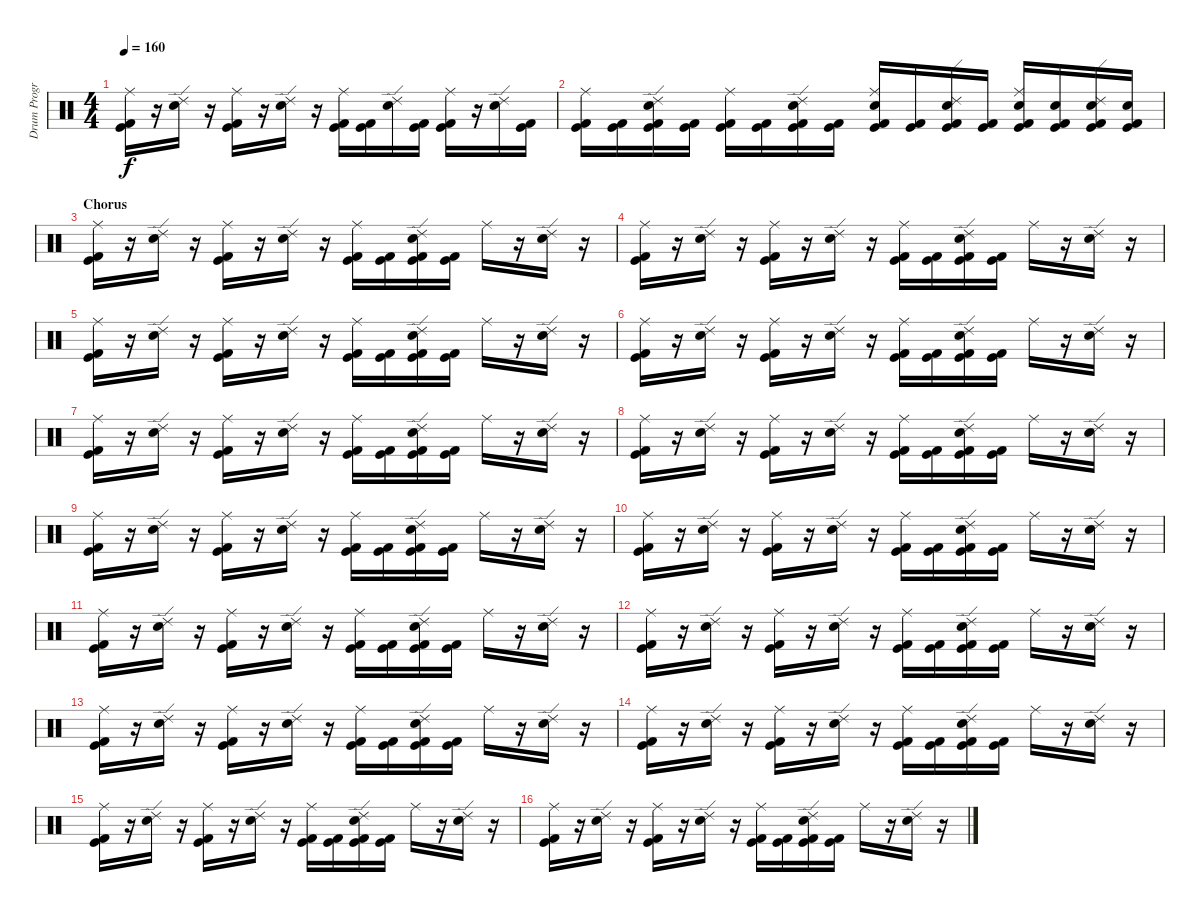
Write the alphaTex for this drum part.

\track ("Drum Program - BG" "Drum Progr") {instrument percussion}
\staff {score}
\articulation defaults
\ts (4 4)
\tempo 160
\clef neutral
\ks c
("Kick (hit) 2" "Kick (hit)" "Ride (middle)").16{dy f} r.16 ("Electric Snare (hit)" "Ride (edge) 2").16 r.16 ("Kick (hit)" "Kick (hit) 2" "Ride (middle)").16 r.16 ("Electric Snare (hit)" "Ride (edge) 2").16 r.16 ("Kick (hit)" "Kick (hit) 2" "Ride (middle)").16 ("Kick (hit)" "Kick (hit) 2").16 ("Electric Snare (hit)" "Ride (edge) 2").16 ("Kick (hit)" "Kick (hit) 2").16 ("Kick (hit)" "Kick (hit) 2" "Ride (middle)").16 r.16 ("Electric Snare (hit)" "Ride (edge) 2").16 ("Kick (hit)" "Kick (hit) 2").16 |
("Kick (hit)" "Kick (hit) 2" "Ride (middle)").16 ("Kick (hit)" "Kick (hit) 2").16 ("Kick (hit)" "Kick (hit) 2" "Electric Snare (hit)" "Ride (edge) 2").16 ("Kick (hit)" "Kick (hit) 2").16 ("Kick (hit)" "Kick (hit) 2" "Ride (middle)").16 ("Kick (hit)" "Kick (hit) 2").16 ("Kick (hit)" "Kick (hit) 2" "Electric Snare (hit)" "Ride (edge) 2").16 ("Kick (hit)" "Kick (hit) 2").16 ("Kick (hit)" "Kick (hit) 2" "Electric Snare (hit)" "Ride (middle)").16 ("Kick (hit)" "Kick (hit) 2").16 ("Kick (hit)" "Kick (hit) 2" "Electric Snare (hit)" "Ride (edge) 2").16 ("Kick (hit)" "Kick (hit) 2").16 ("Kick (hit)" "Kick (hit) 2" "Electric Snare (hit)" "Ride (middle)").16 ("Kick (hit)" "Kick (hit) 2" "Electric Snare (hit)").16 ("Kick (hit)" "Kick (hit) 2" "Electric Snare (hit)" "Ride (edge) 2").16 ("Kick (hit)" "Kick (hit) 2" "Electric Snare (hit)").16 |
\section ("" "Chorus")
("Kick (hit) 2" "Kick (hit)" "Ride (middle)").16 r.16 ("Electric Snare (hit)" "Ride (edge) 2").16 r.16 ("Kick (hit)" "Kick (hit) 2" "Ride (middle)").16 r.16 ("Electric Snare (hit)" "Ride (edge) 2").16 r.16 ("Kick (hit)" "Kick (hit) 2" "Ride (middle)").16 ("Kick (hit)" "Kick (hit) 2").16 ("Kick (hit)" "Kick (hit) 2" "Electric Snare (hit)" "Ride (edge) 2").16 ("Kick (hit)" "Kick (hit) 2").16 "Ride (middle)".16 r.16 ("Electric Snare (hit)" "Ride (edge) 2").16 r.16 |
("Kick (hit) 2" "Kick (hit)" "Ride (middle)").16 r.16 ("Electric Snare (hit)" "Ride (edge) 2").16 r.16 ("Kick (hit)" "Kick (hit) 2" "Ride (middle)").16 r.16 ("Electric Snare (hit)" "Ride (edge) 2").16 r.16 ("Kick (hit)" "Kick (hit) 2" "Ride (middle)").16 ("Kick (hit)" "Kick (hit) 2").16 ("Kick (hit)" "Kick (hit) 2" "Electric Snare (hit)" "Ride (edge) 2").16 ("Kick (hit)" "Kick (hit) 2").16 "Ride (middle)".16 r.16 ("Electric Snare (hit)" "Ride (edge) 2").16 r.16 |
("Kick (hit) 2" "Kick (hit)" "Ride (middle)").16 r.16 ("Electric Snare (hit)" "Ride (edge) 2").16 r.16 ("Kick (hit)" "Kick (hit) 2" "Ride (middle)").16 r.16 ("Electric Snare (hit)" "Ride (edge) 2").16 r.16 ("Kick (hit)" "Kick (hit) 2" "Ride (middle)").16 ("Kick (hit)" "Kick (hit) 2").16 ("Kick (hit)" "Kick (hit) 2" "Electric Snare (hit)" "Ride (edge) 2").16 ("Kick (hit)" "Kick (hit) 2").16 "Ride (middle)".16 r.16 ("Electric Snare (hit)" "Ride (edge) 2").16 r.16 |
("Kick (hit) 2" "Kick (hit)" "Ride (middle)").16 r.16 ("Electric Snare (hit)" "Ride (edge) 2").16 r.16 ("Kick (hit)" "Kick (hit) 2" "Ride (middle)").16 r.16 ("Electric Snare (hit)" "Ride (edge) 2").16 r.16 ("Kick (hit)" "Kick (hit) 2" "Ride (middle)").16 ("Kick (hit)" "Kick (hit) 2").16 ("Kick (hit)" "Kick (hit) 2" "Electric Snare (hit)" "Ride (edge) 2").16 ("Kick (hit)" "Kick (hit) 2").16 "Ride (middle)".16 r.16 ("Electric Snare (hit)" "Ride (edge) 2").16 r.16 |
("Kick (hit) 2" "Kick (hit)" "Ride (middle)").16 r.16 ("Electric Snare (hit)" "Ride (edge) 2").16 r.16 ("Kick (hit)" "Kick (hit) 2" "Ride (middle)").16 r.16 ("Electric Snare (hit)" "Ride (edge) 2").16 r.16 ("Kick (hit)" "Kick (hit) 2" "Ride (middle)").16 ("Kick (hit)" "Kick (hit) 2").16 ("Kick (hit)" "Kick (hit) 2" "Electric Snare (hit)" "Ride (edge) 2").16 ("Kick (hit)" "Kick (hit) 2").16 "Ride (middle)".16 r.16 ("Electric Snare (hit)" "Ride (edge) 2").16 r.16 |
("Kick (hit) 2" "Kick (hit)" "Ride (middle)").16 r.16 ("Electric Snare (hit)" "Ride (edge) 2").16 r.16 ("Kick (hit)" "Kick (hit) 2" "Ride (middle)").16 r.16 ("Electric Snare (hit)" "Ride (edge) 2").16 r.16 ("Kick (hit)" "Kick (hit) 2" "Ride (middle)").16 ("Kick (hit)" "Kick (hit) 2").16 ("Kick (hit)" "Kick (hit) 2" "Electric Snare (hit)" "Ride (edge) 2").16 ("Kick (hit)" "Kick (hit) 2").16 "Ride (middle)".16 r.16 ("Electric Snare (hit)" "Ride (edge) 2").16 r.16 |
("Kick (hit) 2" "Kick (hit)" "Ride (middle)").16 r.16 ("Electric Snare (hit)" "Ride (edge) 2").16 r.16 ("Kick (hit)" "Kick (hit) 2" "Ride (middle)").16 r.16 ("Electric Snare (hit)" "Ride (edge) 2").16 r.16 ("Kick (hit)" "Kick (hit) 2" "Ride (middle)").16 ("Kick (hit)" "Kick (hit) 2").16 ("Kick (hit)" "Kick (hit) 2" "Electric Snare (hit)" "Ride (edge) 2").16 ("Kick (hit)" "Kick (hit) 2").16 "Ride (middle)".16 r.16 ("Electric Snare (hit)" "Ride (edge) 2").16 r.16 |
("Kick (hit) 2" "Kick (hit)" "Ride (middle)").16 r.16 ("Electric Snare (hit)" "Ride (edge) 2").16 r.16 ("Kick (hit)" "Kick (hit) 2" "Ride (middle)").16 r.16 ("Electric Snare (hit)" "Ride (edge) 2").16 r.16 ("Kick (hit)" "Kick (hit) 2" "Ride (middle)").16 ("Kick (hit)" "Kick (hit) 2").16 ("Kick (hit)" "Kick (hit) 2" "Electric Snare (hit)" "Ride (edge) 2").16 ("Kick (hit)" "Kick (hit) 2").16 "Ride (middle)".16 r.16 ("Electric Snare (hit)" "Ride (edge) 2").16 r.16 |
("Kick (hit) 2" "Kick (hit)" "Ride (middle)").16 r.16 ("Electric Snare (hit)" "Ride (edge) 2").16 r.16 ("Kick (hit)" "Kick (hit) 2" "Ride (middle)").16 r.16 ("Electric Snare (hit)" "Ride (edge) 2").16 r.16 ("Kick (hit)" "Kick (hit) 2" "Ride (middle)").16 ("Kick (hit)" "Kick (hit) 2").16 ("Kick (hit)" "Kick (hit) 2" "Electric Snare (hit)" "Ride (edge) 2").16 ("Kick (hit)" "Kick (hit) 2").16 "Ride (middle)".16 r.16 ("Electric Snare (hit)" "Ride (edge) 2").16 r.16 |
("Kick (hit) 2" "Kick (hit)" "Ride (middle)").16 r.16 ("Electric Snare (hit)" "Ride (edge) 2").16 r.16 ("Kick (hit)" "Kick (hit) 2" "Ride (middle)").16 r.16 ("Electric Snare (hit)" "Ride (edge) 2").16 r.16 ("Kick (hit)" "Kick (hit) 2" "Ride (middle)").16 ("Kick (hit)" "Kick (hit) 2").16 ("Kick (hit)" "Kick (hit) 2" "Electric Snare (hit)" "Ride (edge) 2").16 ("Kick (hit)" "Kick (hit) 2").16 "Ride (middle)".16 r.16 ("Electric Snare (hit)" "Ride (edge) 2").16 r.16 |
("Kick (hit) 2" "Kick (hit)" "Ride (middle)").16 r.16 ("Electric Snare (hit)" "Ride (edge) 2").16 r.16 ("Kick (hit)" "Kick (hit) 2" "Ride (middle)").16 r.16 ("Electric Snare (hit)" "Ride (edge) 2").16 r.16 ("Kick (hit)" "Kick (hit) 2" "Ride (middle)").16 ("Kick (hit)" "Kick (hit) 2").16 ("Kick (hit)" "Kick (hit) 2" "Electric Snare (hit)" "Ride (edge) 2").16 ("Kick (hit)" "Kick (hit) 2").16 "Ride (middle)".16 r.16 ("Electric Snare (hit)" "Ride (edge) 2").16 r.16 |
("Kick (hit) 2" "Kick (hit)" "Ride (middle)").16 r.16 ("Electric Snare (hit)" "Ride (edge) 2").16 r.16 ("Kick (hit)" "Kick (hit) 2" "Ride (middle)").16 r.16 ("Electric Snare (hit)" "Ride (edge) 2").16 r.16 ("Kick (hit)" "Kick (hit) 2" "Ride (middle)").16 ("Kick (hit)" "Kick (hit) 2").16 ("Kick (hit)" "Kick (hit) 2" "Electric Snare (hit)" "Ride (edge) 2").16 ("Kick (hit)" "Kick (hit) 2").16 "Ride (middle)".16 r.16 ("Electric Snare (hit)" "Ride (edge) 2").16 r.16 |
("Kick (hit) 2" "Kick (hit)" "Ride (middle)").16 r.16 ("Electric Snare (hit)" "Ride (edge) 2").16 r.16 ("Kick (hit)" "Kick (hit) 2" "Ride (middle)").16 r.16 ("Electric Snare (hit)" "Ride (edge) 2").16 r.16 ("Kick (hit)" "Kick (hit) 2" "Ride (middle)").16 ("Kick (hit)" "Kick (hit) 2").16 ("Kick (hit)" "Kick (hit) 2" "Electric Snare (hit)" "Ride (edge) 2").16 ("Kick (hit)" "Kick (hit) 2").16 "Ride (middle)".16 r.16 ("Electric Snare (hit)" "Ride (edge) 2").16 r.16 |
("Kick (hit) 2" "Kick (hit)" "Ride (middle)").16 r.16 ("Electric Snare (hit)" "Ride (edge) 2").16 r.16 ("Kick (hit)" "Kick (hit) 2" "Ride (middle)").16 r.16 ("Electric Snare (hit)" "Ride (edge) 2").16 r.16 ("Kick (hit)" "Kick (hit) 2" "Ride (middle)").16 ("Kick (hit)" "Kick (hit) 2").16 ("Kick (hit)" "Kick (hit) 2" "Electric Snare (hit)" "Ride (edge) 2").16 ("Kick (hit)" "Kick (hit) 2").16 "Ride (middle)".16 r.16 ("Electric Snare (hit)" "Ride (edge) 2").16 r.16
